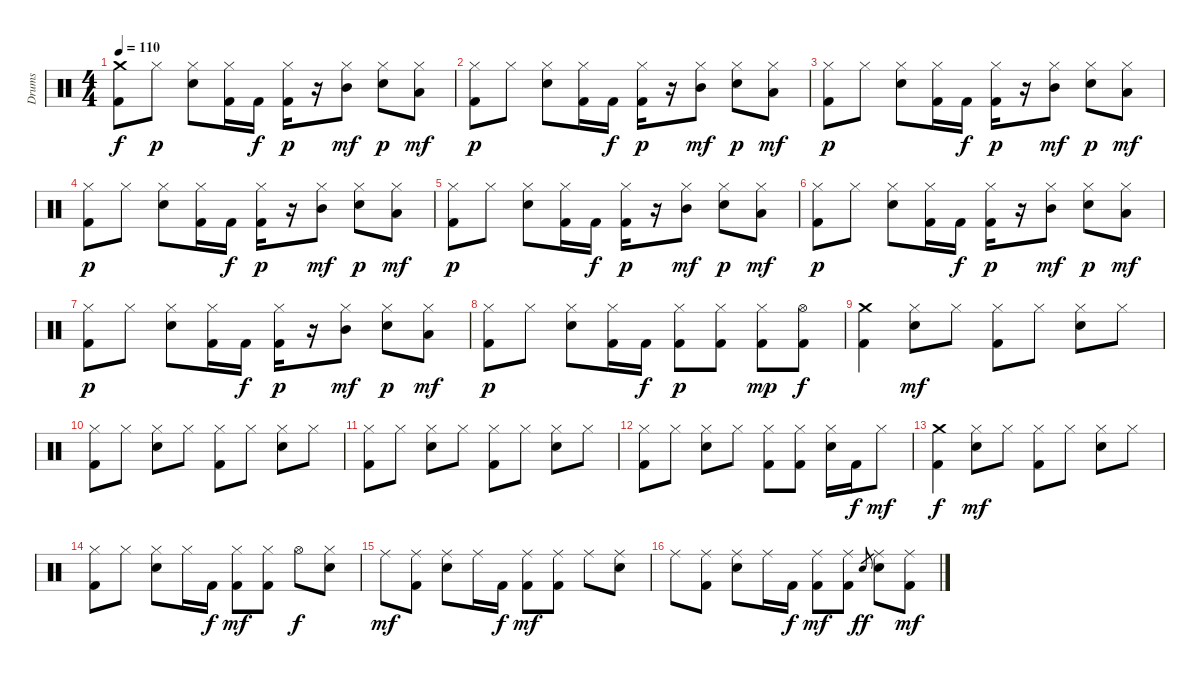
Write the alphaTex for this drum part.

\track ("Drums" "Drums") {instrument percussion}
\staff {score}
\articulation defaults
\ts (4 4)
\tempo 110
\clef neutral
\ks c
("Crash medium (hit)" "Kick (hit) 2").8{dy f} "Hi-Hat (closed)".8{dy p} ("Hi-Hat (closed)" "Electric Snare (hit)").8 ("Hi-Hat (closed)" "Kick (hit) 2").16 "Kick (hit) 2".16{dy f} ("Hi-Hat (closed)" "Kick (hit) 2").16{dy p} r.16 ("Hi-Hat (closed)" "Mid Tom (hit)").8{dy mf} ("Hi-Hat (closed)" "Electric Snare (hit)").8{dy p} ("Hi-Hat (closed)" "Low Tom (hit)").8{dy mf} |
("Hi-Hat (closed)" "Kick (hit) 2").8{dy p} "Hi-Hat (closed)".8 ("Hi-Hat (closed)" "Electric Snare (hit)").8 ("Hi-Hat (closed)" "Kick (hit) 2").16 "Kick (hit) 2".16{dy f} ("Hi-Hat (closed)" "Kick (hit) 2").16{dy p} r.16 ("Hi-Hat (closed)" "Mid Tom (hit)").8{dy mf} ("Hi-Hat (closed)" "Electric Snare (hit)").8{dy p} ("Hi-Hat (closed)" "Low Tom (hit)").8{dy mf} |
("Hi-Hat (closed)" "Kick (hit) 2").8{dy p} "Hi-Hat (closed)".8 ("Hi-Hat (closed)" "Electric Snare (hit)").8 ("Hi-Hat (closed)" "Kick (hit) 2").16 "Kick (hit) 2".16{dy f} ("Hi-Hat (closed)" "Kick (hit) 2").16{dy p} r.16 ("Hi-Hat (closed)" "Mid Tom (hit)").8{dy mf} ("Hi-Hat (closed)" "Electric Snare (hit)").8{dy p} ("Hi-Hat (closed)" "Low Tom (hit)").8{dy mf} |
("Hi-Hat (closed)" "Kick (hit) 2").8{dy p} "Hi-Hat (closed)".8 ("Hi-Hat (closed)" "Electric Snare (hit)").8 ("Hi-Hat (closed)" "Kick (hit) 2").16 "Kick (hit) 2".16{dy f} ("Hi-Hat (closed)" "Kick (hit) 2").16{dy p} r.16 ("Hi-Hat (closed)" "Mid Tom (hit)").8{dy mf} ("Hi-Hat (closed)" "Electric Snare (hit)").8{dy p} ("Hi-Hat (closed)" "Low Tom (hit)").8{dy mf} |
("Hi-Hat (closed)" "Kick (hit) 2").8{dy p} "Hi-Hat (closed)".8 ("Hi-Hat (closed)" "Electric Snare (hit)").8 ("Hi-Hat (closed)" "Kick (hit) 2").16 "Kick (hit) 2".16{dy f} ("Hi-Hat (closed)" "Kick (hit) 2").16{dy p} r.16 ("Hi-Hat (closed)" "Mid Tom (hit)").8{dy mf} ("Hi-Hat (closed)" "Electric Snare (hit)").8{dy p} ("Hi-Hat (closed)" "Low Tom (hit)").8{dy mf} |
("Hi-Hat (closed)" "Kick (hit) 2").8{dy p} "Hi-Hat (closed)".8 ("Hi-Hat (closed)" "Electric Snare (hit)").8 ("Hi-Hat (closed)" "Kick (hit) 2").16 "Kick (hit) 2".16{dy f} ("Hi-Hat (closed)" "Kick (hit) 2").16{dy p} r.16 ("Hi-Hat (closed)" "Mid Tom (hit)").8{dy mf} ("Hi-Hat (closed)" "Electric Snare (hit)").8{dy p} ("Hi-Hat (closed)" "Low Tom (hit)").8{dy mf} |
("Hi-Hat (closed)" "Kick (hit) 2").8{dy p} "Hi-Hat (closed)".8 ("Hi-Hat (closed)" "Electric Snare (hit)").8 ("Hi-Hat (closed)" "Kick (hit) 2").16 "Kick (hit) 2".16{dy f} ("Hi-Hat (closed)" "Kick (hit) 2").16{dy p} r.16 ("Hi-Hat (closed)" "Mid Tom (hit)").8{dy mf} ("Hi-Hat (closed)" "Electric Snare (hit)").8{dy p} ("Hi-Hat (closed)" "Low Tom (hit)").8{dy mf} |
("Hi-Hat (closed)" "Kick (hit) 2").8{dy p} "Hi-Hat (closed)".8 ("Hi-Hat (closed)" "Electric Snare (hit)").8 ("Hi-Hat (closed)" "Kick (hit) 2").16 "Kick (hit) 2".16{dy f} ("Hi-Hat (closed)" "Kick (hit) 2").8{dy p} ("Hi-Hat (closed)" "Kick (hit) 2").8 ("Hi-Hat (closed)" "Kick (hit) 2").8{dy mp} ("Hi-Hat (open)" "Kick (hit) 2").8{dy f} |
("Crash medium (hit)" "Kick (hit) 2").4 ("Hi-Hat (closed)" "Electric Snare (hit)").8{dy mf} "Hi-Hat (closed)".8 ("Hi-Hat (closed)" "Kick (hit) 2").8 "Hi-Hat (closed)".8 ("Hi-Hat (closed)" "Electric Snare (hit)").8 "Hi-Hat (closed)".8 |
("Hi-Hat (closed)" "Kick (hit) 2").8 "Hi-Hat (closed)".8 ("Hi-Hat (closed)" "Electric Snare (hit)").8 "Hi-Hat (closed)".8 ("Hi-Hat (closed)" "Kick (hit) 2").8 "Hi-Hat (closed)".8 ("Hi-Hat (closed)" "Electric Snare (hit)").8 "Hi-Hat (closed)".8 |
("Hi-Hat (closed)" "Kick (hit) 2").8 "Hi-Hat (closed)".8 ("Hi-Hat (closed)" "Electric Snare (hit)").8 "Hi-Hat (closed)".8 ("Hi-Hat (closed)" "Kick (hit) 2").8 "Hi-Hat (closed)".8 ("Hi-Hat (closed)" "Electric Snare (hit)").8 "Hi-Hat (closed)".8 |
("Hi-Hat (closed)" "Kick (hit) 2").8 "Hi-Hat (closed)".8 ("Hi-Hat (closed)" "Electric Snare (hit)").8 "Hi-Hat (closed)".8 ("Hi-Hat (closed)" "Kick (hit) 2").8 ("Hi-Hat (closed)" "Kick (hit) 2").8 ("Hi-Hat (closed)" "Electric Snare (hit)").16 "Kick (hit) 2".16{dy f} "Hi-Hat (closed)".8{dy mf} |
("Crash medium (hit)" "Kick (hit) 2").4{dy f} ("Hi-Hat (closed)" "Electric Snare (hit)").8{dy mf} "Hi-Hat (closed)".8 ("Hi-Hat (closed)" "Kick (hit) 2").8 "Hi-Hat (closed)".8 ("Hi-Hat (closed)" "Electric Snare (hit)").8 "Hi-Hat (closed)".8 |
("Hi-Hat (closed)" "Kick (hit) 2").8 "Hi-Hat (closed)".8 ("Hi-Hat (closed)" "Electric Snare (hit)").8 "Hi-Hat (closed)".16 "Kick (hit) 2".16{dy f} ("Hi-Hat (closed)" "Kick (hit) 2").8{dy mf} ("Hi-Hat (closed)" "Kick (hit) 2").8 "Hi-Hat (open)".8{dy f} ("Hi-Hat (closed)" "Electric Snare (hit)").8 |
"Ride (middle)".8{dy mf} ("Ride (middle)" "Kick (hit) 2").8 ("Ride (middle)" "Electric Snare (hit)").8 "Ride (middle)".16 "Kick (hit) 2".16{dy f} ("Ride (middle)" "Kick (hit) 2").8{dy mf} ("Ride (middle)" "Kick (hit) 2").8 "Ride (middle)".8 ("Ride (middle)" "Electric Snare (hit)").8 |
"Ride (middle)".8 ("Ride (middle)" "Kick (hit) 2").8 ("Ride (middle)" "Electric Snare (hit)").8 "Ride (middle)".16 "Kick (hit) 2".16{dy f} ("Ride (middle)" "Kick (hit) 2").8{dy mf} ("Ride (middle)" "Kick (hit) 2").8 "Electric Snare (hit)".8{gr dy ff} ("Ride (middle)" "Electric Snare (hit)").8 ("Ride (middle)" "Kick (hit) 2").8{dy mf}
